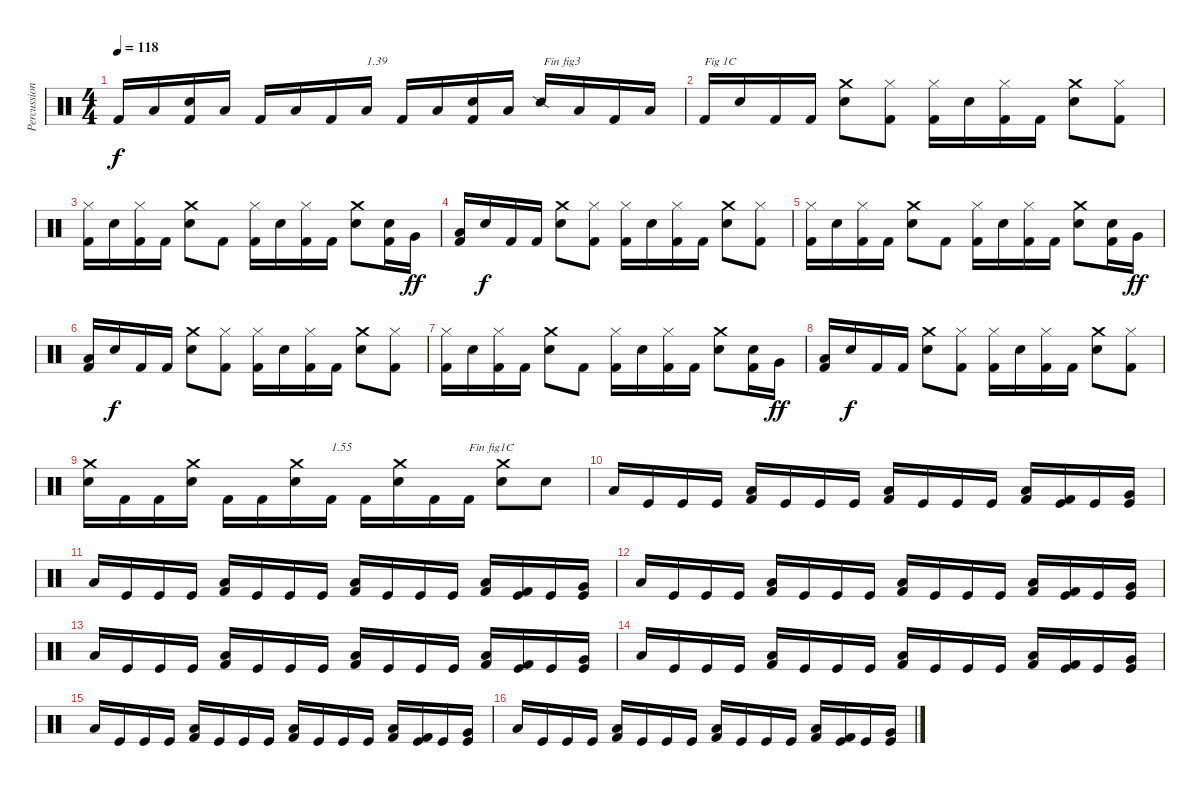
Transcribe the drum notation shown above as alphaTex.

\track ("Percussions" "Percussion") {instrument percussion}
\staff {score}
\articulation defaults
\ts (4 4)
\tempo 118
\clef neutral
\ks c "Kick (hit) 2".16{dy f} "Low Floor Tom (hit)".16
("Kick (hit) 2" "Electric Snare (hit)").16 "Low Floor Tom (hit)".16 "Kick (hit) 2".16 "Low Floor Tom (hit)".16 "Kick (hit) 2".16 "Low Floor Tom (hit)".16{txt "1.39"} "Kick (hit) 2".16 "Low Floor Tom (hit)".16 ("Kick (hit) 2" "Electric Snare (hit)").16 "Low Floor Tom (hit)".16 "Snare (side stick) 2".16{txt "Fin fig3"} "Low Floor Tom (hit)".16 "Kick (hit) 2".16 "Low Floor Tom (hit)".16 |
"Kick (hit) 2".16{txt "Fig 1C"} "Electric Snare (hit)".16 "Kick (hit) 2".16 "Kick (hit) 2".16 ("Electric Snare (hit)" "Crash medium (hit)").8 ("Kick (hit) 2" "Hi-Hat (closed)").8 ("Kick (hit) 2" "Hi-Hat (closed)").16 "Electric Snare (hit)".16 ("Kick (hit) 2" "Hi-Hat (closed)").16 "Kick (hit) 2".16 ("Electric Snare (hit)" "Crash medium (hit)").8 ("Kick (hit) 2" "Hi-Hat (closed)").8 |
("Kick (hit) 2" "Hi-Hat (closed)").16 "Electric Snare (hit)".16 ("Kick (hit) 2" "Hi-Hat (closed)").16 "Kick (hit) 2".16 ("Electric Snare (hit)" "Crash medium (hit)").8 "Kick (hit) 2".8 ("Kick (hit) 2" "Hi-Hat (closed)").16 "Electric Snare (hit)".16 ("Kick (hit) 2" "Hi-Hat (closed)").16 "Kick (hit) 2".16 ("Electric Snare (hit)" "Crash medium (hit)").8 ("Kick (hit) 2" "Electric Snare (hit)").16 "Very Low Tom (hit)".16{dy ff} |
("Kick (hit) 2" "Low Floor Tom (hit)").16 "Electric Snare (hit)".16{dy f} "Kick (hit) 2".16 "Kick (hit) 2".16 ("Electric Snare (hit)" "Crash medium (hit)").8 ("Kick (hit) 2" "Hi-Hat (closed)").8 ("Kick (hit) 2" "Hi-Hat (closed)").16 "Electric Snare (hit)".16 ("Kick (hit) 2" "Hi-Hat (closed)").16 "Kick (hit) 2".16 ("Electric Snare (hit)" "Crash medium (hit)").8 ("Kick (hit) 2" "Hi-Hat (closed)").8 |
("Kick (hit) 2" "Hi-Hat (closed)").16 "Electric Snare (hit)".16 ("Kick (hit) 2" "Hi-Hat (closed)").16 "Kick (hit) 2".16 ("Electric Snare (hit)" "Crash medium (hit)").8 "Kick (hit) 2".8 ("Kick (hit) 2" "Hi-Hat (closed)").16 "Electric Snare (hit)".16 ("Kick (hit) 2" "Hi-Hat (closed)").16 "Kick (hit) 2".16 ("Electric Snare (hit)" "Crash medium (hit)").8 ("Kick (hit) 2" "Electric Snare (hit)").16 "Very Low Tom (hit)".16{dy ff} |
("Kick (hit) 2" "Low Floor Tom (hit)").16 "Electric Snare (hit)".16{dy f} "Kick (hit) 2".16 "Kick (hit) 2".16 ("Electric Snare (hit)" "Crash medium (hit)").8 ("Kick (hit) 2" "Hi-Hat (closed)").8 ("Kick (hit) 2" "Hi-Hat (closed)").16 "Electric Snare (hit)".16 ("Kick (hit) 2" "Hi-Hat (closed)").16 "Kick (hit) 2".16 ("Electric Snare (hit)" "Crash medium (hit)").8 ("Kick (hit) 2" "Hi-Hat (closed)").8 |
("Kick (hit) 2" "Hi-Hat (closed)").16 "Electric Snare (hit)".16 ("Kick (hit) 2" "Hi-Hat (closed)").16 "Kick (hit) 2".16 ("Electric Snare (hit)" "Crash medium (hit)").8 "Kick (hit) 2".8 ("Kick (hit) 2" "Hi-Hat (closed)").16 "Electric Snare (hit)".16 ("Kick (hit) 2" "Hi-Hat (closed)").16 "Kick (hit) 2".16 ("Electric Snare (hit)" "Crash medium (hit)").8 ("Kick (hit) 2" "Electric Snare (hit)").16 "Very Low Tom (hit)".16{dy ff} |
("Kick (hit) 2" "Low Floor Tom (hit)").16 "Electric Snare (hit)".16{dy f} "Kick (hit) 2".16 "Kick (hit) 2".16 ("Electric Snare (hit)" "Crash medium (hit)").8 ("Kick (hit) 2" "Hi-Hat (closed)").8 ("Kick (hit) 2" "Hi-Hat (closed)").16 "Electric Snare (hit)".16 ("Kick (hit) 2" "Hi-Hat (closed)").16 "Kick (hit) 2".16 ("Electric Snare (hit)" "Crash medium (hit)").8 ("Kick (hit) 2" "Hi-Hat (closed)").8 |
("Electric Snare (hit)" "Crash medium (hit)").16 "Kick (hit) 2".16 "Kick (hit) 2".16 ("Electric Snare (hit)" "Crash medium (hit)").16 "Kick (hit) 2".16 "Kick (hit) 2".16 ("Electric Snare (hit)" "Crash medium (hit)").16 "Kick (hit) 2".16{txt "1.55"} "Kick (hit) 2".16 ("Electric Snare (hit)" "Crash medium (hit)").16 "Kick (hit) 2".16 "Kick (hit) 2".16{txt "Fin fig1C"} ("Electric Snare (hit)" "Crash medium (hit)").8 "Electric Snare (hit)".8 |
"Low Floor Tom (hit)".16 "Kick (hit)".16 "Kick (hit)".16 "Kick (hit)".16 ("Kick (hit) 2" "Low Floor Tom (hit)").16 "Kick (hit)".16 "Kick (hit)".16 "Kick (hit)".16 ("Kick (hit) 2" "Low Floor Tom (hit)").16 "Kick (hit)".16 "Kick (hit)".16 "Kick (hit)".16 ("Kick (hit) 2" "Low Floor Tom (hit)").16 ("Kick (hit) 2" "Kick (hit)").16 "Kick (hit)".16 ("Kick (hit)" "Very Low Tom (hit)").16 |
"Low Floor Tom (hit)".16 "Kick (hit)".16 "Kick (hit)".16 "Kick (hit)".16 ("Kick (hit) 2" "Low Floor Tom (hit)").16 "Kick (hit)".16 "Kick (hit)".16 "Kick (hit)".16 ("Kick (hit) 2" "Low Floor Tom (hit)").16 "Kick (hit)".16 "Kick (hit)".16 "Kick (hit)".16 ("Kick (hit) 2" "Low Floor Tom (hit)").16 ("Kick (hit) 2" "Kick (hit)").16 "Kick (hit)".16 ("Kick (hit)" "Very Low Tom (hit)").16 |
"Low Floor Tom (hit)".16 "Kick (hit)".16 "Kick (hit)".16 "Kick (hit)".16 ("Kick (hit) 2" "Low Floor Tom (hit)").16 "Kick (hit)".16 "Kick (hit)".16 "Kick (hit)".16 ("Kick (hit) 2" "Low Floor Tom (hit)").16 "Kick (hit)".16 "Kick (hit)".16 "Kick (hit)".16 ("Kick (hit) 2" "Low Floor Tom (hit)").16 ("Kick (hit) 2" "Kick (hit)").16 "Kick (hit)".16 ("Kick (hit)" "Very Low Tom (hit)").16 |
"Low Floor Tom (hit)".16 "Kick (hit)".16 "Kick (hit)".16 "Kick (hit)".16 ("Kick (hit) 2" "Low Floor Tom (hit)").16 "Kick (hit)".16 "Kick (hit)".16 "Kick (hit)".16 ("Kick (hit) 2" "Low Floor Tom (hit)").16 "Kick (hit)".16 "Kick (hit)".16 "Kick (hit)".16 ("Kick (hit) 2" "Low Floor Tom (hit)").16 ("Kick (hit) 2" "Kick (hit)").16 "Kick (hit)".16 ("Kick (hit)" "Very Low Tom (hit)").16 |
"Low Floor Tom (hit)".16 "Kick (hit)".16 "Kick (hit)".16 "Kick (hit)".16 ("Kick (hit) 2" "Low Floor Tom (hit)").16 "Kick (hit)".16 "Kick (hit)".16 "Kick (hit)".16 ("Kick (hit) 2" "Low Floor Tom (hit)").16 "Kick (hit)".16 "Kick (hit)".16 "Kick (hit)".16 ("Kick (hit) 2" "Low Floor Tom (hit)").16 ("Kick (hit) 2" "Kick (hit)").16 "Kick (hit)".16 ("Kick (hit)" "Very Low Tom (hit)").16 |
"Low Floor Tom (hit)".16 "Kick (hit)".16 "Kick (hit)".16 "Kick (hit)".16 ("Kick (hit) 2" "Low Floor Tom (hit)").16 "Kick (hit)".16 "Kick (hit)".16 "Kick (hit)".16 ("Kick (hit) 2" "Low Floor Tom (hit)").16 "Kick (hit)".16 "Kick (hit)".16 "Kick (hit)".16 ("Kick (hit) 2" "Low Floor Tom (hit)").16 ("Kick (hit) 2" "Kick (hit)").16 "Kick (hit)".16 ("Kick (hit)" "Very Low Tom (hit)").16 |
"Low Floor Tom (hit)".16 "Kick (hit)".16 "Kick (hit)".16 "Kick (hit)".16 ("Kick (hit) 2" "Low Floor Tom (hit)").16 "Kick (hit)".16 "Kick (hit)".16 "Kick (hit)".16 ("Kick (hit) 2" "Low Floor Tom (hit)").16 "Kick (hit)".16 "Kick (hit)".16 "Kick (hit)".16 ("Kick (hit) 2" "Low Floor Tom (hit)").16 ("Kick (hit) 2" "Kick (hit)").16 "Kick (hit)".16 ("Kick (hit)" "Very Low Tom (hit)").16
